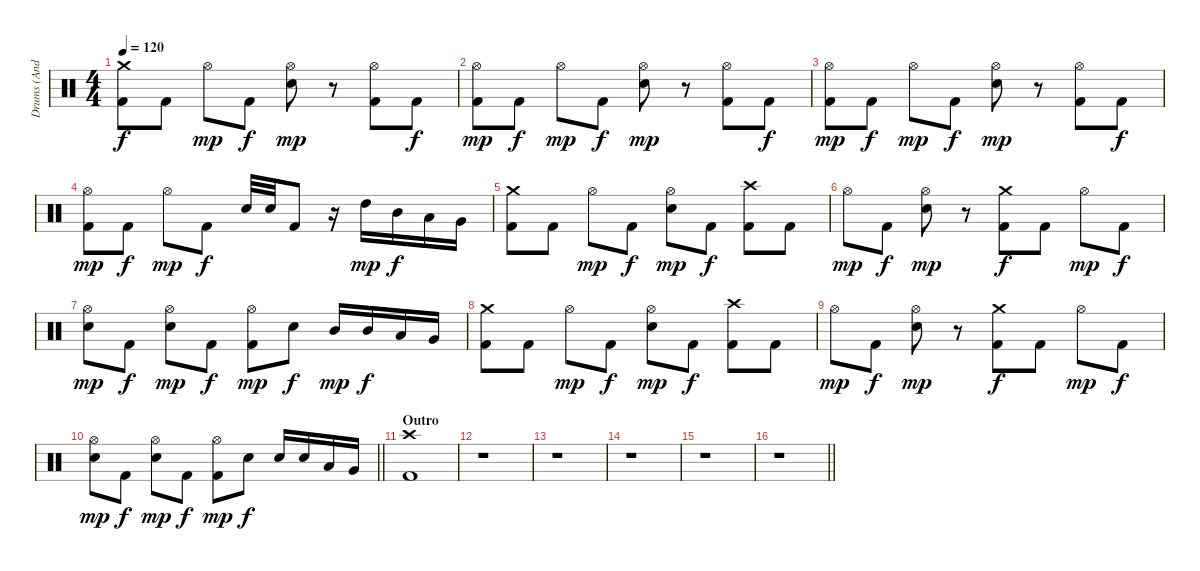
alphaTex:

\track ("Drums (Andy C)" "Drums (And") {instrument percussion}
\staff
\articulation defaults
\ts (4 4)
\tempo 120
\clef neutral
\ks c
("Crash medium (hit)" "Kick (hit) 2").8{dy f} "Kick (hit) 2".8 "Hi-Hat (open)".8{dy mp} "Kick (hit) 2".8{dy f} ("Hi-Hat (open)" "Electric Snare (hit)").8{dy mp} r.8 ("Hi-Hat (open)" "Kick (hit) 2").8 "Kick (hit) 2".8{dy f} |
("Hi-Hat (open)" "Kick (hit) 2").8{dy mp} "Kick (hit) 2".8{dy f} "Hi-Hat (open)".8{dy mp} "Kick (hit) 2".8{dy f} ("Hi-Hat (open)" "Electric Snare (hit)").8{dy mp} r.8 ("Hi-Hat (open)" "Kick (hit) 2").8 "Kick (hit) 2".8{dy f} |
("Hi-Hat (open)" "Kick (hit) 2").8{dy mp} "Kick (hit) 2".8{dy f} "Hi-Hat (open)".8{dy mp} "Kick (hit) 2".8{dy f} ("Hi-Hat (open)" "Electric Snare (hit)").8{dy mp} r.8 ("Hi-Hat (open)" "Kick (hit) 2").8 "Kick (hit) 2".8{dy f} |
("Hi-Hat (open)" "Kick (hit) 2").8{dy mp} "Kick (hit) 2".8{dy f} "Hi-Hat (open)".8{dy mp} "Kick (hit) 2".8{dy f} "Electric Snare (hit)".32 "Electric Snare (hit)".32 "Kick (hit) 2".8 r.16 "High Tom (hit)".16{dy mp} "Mid Tom (hit)".16{dy f} "Low Tom (hit)".16 "Very Low Tom (hit)".16 |
("Crash medium (hit)" "Kick (hit) 2").8 "Kick (hit) 2".8 "Hi-Hat (open)".8{dy mp} "Kick (hit) 2".8{dy f} ("Hi-Hat (open)" "Electric Snare (hit)").8{dy mp} "Kick (hit) 2".8{dy f} ("Crash high (hit)" "Kick (hit) 2").8 "Kick (hit) 2".8 |
"Hi-Hat (open)".8{dy mp} "Kick (hit) 2".8{dy f} ("Hi-Hat (open)" "Electric Snare (hit)").8{dy mp} r.8 ("Crash medium (hit)" "Kick (hit) 2").8{dy f} "Kick (hit) 2".8 "Hi-Hat (open)".8{dy mp} "Kick (hit) 2".8{dy f} |
("Hi-Hat (open)" "Electric Snare (hit)").8{dy mp} "Kick (hit) 2".8{dy f} ("Hi-Hat (open)" "Electric Snare (hit)").8{dy mp} "Kick (hit) 2".8{dy f} ("Hi-Hat (open)" "Kick (hit) 2").8{dy mp} "Electric Snare (hit)".8{dy f} "Mid Tom (hit)".16{dy mp} "Mid Tom (hit)".16{dy f} "Low Tom (hit)".16 "Very Low Tom (hit)".16 |
("Crash medium (hit)" "Kick (hit) 2").8 "Kick (hit) 2".8 "Hi-Hat (open)".8{dy mp} "Kick (hit) 2".8{dy f} ("Hi-Hat (open)" "Electric Snare (hit)").8{dy mp} "Kick (hit) 2".8{dy f} ("Crash high (hit)" "Kick (hit) 2").8 "Kick (hit) 2".8 |
"Hi-Hat (open)".8{dy mp} "Kick (hit) 2".8{dy f} ("Hi-Hat (open)" "Electric Snare (hit)").8{dy mp} r.8 ("Crash medium (hit)" "Kick (hit) 2").8{dy f} "Kick (hit) 2".8 "Hi-Hat (open)".8{dy mp} "Kick (hit) 2".8{dy f} |
\barLineRight lightlight
("Hi-Hat (open)" "Electric Snare (hit)").8{dy mp} "Kick (hit) 2".8{dy f} ("Hi-Hat (open)" "Electric Snare (hit)").8{dy mp} "Kick (hit) 2".8{dy f} ("Hi-Hat (open)" "Kick (hit) 2").8{dy mp} "Electric Snare (hit)".8{dy f} "Electric Snare (hit)".16 "Electric Snare (hit)".16 "Low Tom (hit)".16 "Very Low Tom (hit)".16 |
\section ("" "Outro")
("Crash high (hit)" "Kick (hit) 2").1 |
r.1 |
r.1 |
r.1 |
r.1 |
\barLineRight lightlight
r.1
